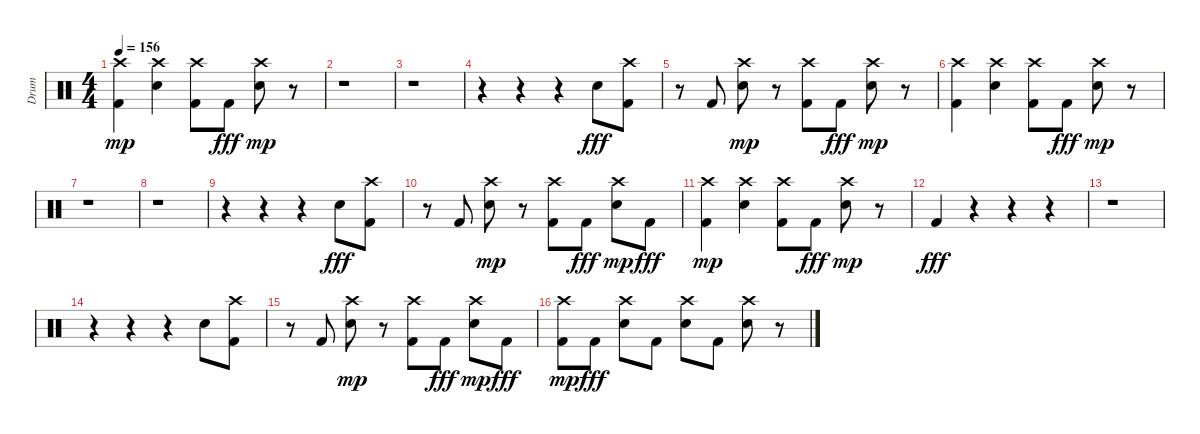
\track ("Drum" "Drum") {instrument percussion}
\staff {score}
\articulation defaults
\ts (4 4)
\tempo 156
\clef neutral
\ks c
("Kick (hit) 2" "Crash high (hit)").4{dy mp} ("Electric Snare (hit)" "Crash high (hit)").4 ("Kick (hit) 2" "Crash high (hit)").8 "Kick (hit) 2".8{dy fff} ("Electric Snare (hit)" "Crash high (hit)").8{dy mp} r.8 |
r.1 |
r.1 |
r.4 r.4 r.4 "Electric Snare (hit)".8{dy fff} ("Kick (hit) 2" "Crash high (hit)").8 |
r.8 "Kick (hit) 2".8 ("Electric Snare (hit)" "Crash high (hit)").8{dy mp} r.8 ("Kick (hit) 2" "Crash high (hit)").8 "Kick (hit) 2".8{dy fff} ("Electric Snare (hit)" "Crash high (hit)").8{dy mp} r.8 |
("Kick (hit) 2" "Crash high (hit)").4 ("Electric Snare (hit)" "Crash high (hit)").4 ("Kick (hit) 2" "Crash high (hit)").8 "Kick (hit) 2".8{dy fff} ("Electric Snare (hit)" "Crash high (hit)").8{dy mp} r.8 |
r.1 |
r.1 |
r.4 r.4 r.4 "Electric Snare (hit)".8{dy fff} ("Kick (hit) 2" "Crash high (hit)").8 |
r.8 "Kick (hit) 2".8 ("Electric Snare (hit)" "Crash high (hit)").8{dy mp} r.8 ("Kick (hit) 2" "Crash high (hit)").8 "Kick (hit) 2".8{dy fff} ("Electric Snare (hit)" "Crash high (hit)").8{dy mp} "Kick (hit) 2".8{dy fff} |
("Kick (hit) 2" "Crash high (hit)").4{dy mp} ("Electric Snare (hit)" "Crash high (hit)").4 ("Kick (hit) 2" "Crash high (hit)").8 "Kick (hit) 2".8{dy fff} ("Electric Snare (hit)" "Crash high (hit)").8{dy mp} r.8 |
"Kick (hit) 2".4{dy fff} r.4 r.4 r.4 |
r.1 |
r.4 r.4 r.4 "Electric Snare (hit)".8 ("Kick (hit) 2" "Crash high (hit)").8 |
r.8 "Kick (hit) 2".8 ("Electric Snare (hit)" "Crash high (hit)").8{dy mp} r.8 ("Kick (hit) 2" "Crash high (hit)").8 "Kick (hit) 2".8{dy fff} ("Electric Snare (hit)" "Crash high (hit)").8{dy mp} "Kick (hit) 2".8{dy fff} |
("Kick (hit) 2" "Crash high (hit)").8{dy mp} "Kick (hit) 2".8{dy fff} ("Electric Snare (hit)" "Crash high (hit)").8 "Kick (hit) 2".8 ("Electric Snare (hit)" "Crash high (hit)").8 "Kick (hit) 2".8 ("Electric Snare (hit)" "Crash high (hit)").8 r.8
